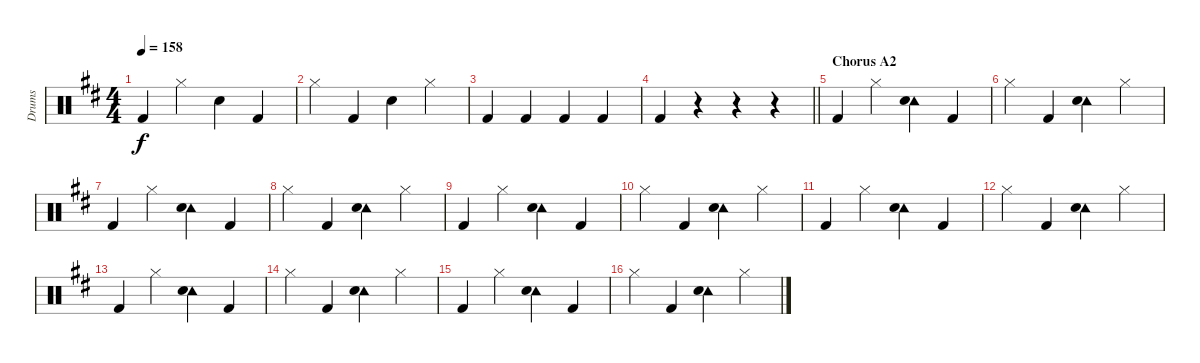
\track ("Drums" "Drums") {instrument percussion}
\staff {score}
\articulation defaults
\ts (4 4)
\tempo 158
\clef neutral
\ks d "Kick (hit) 2".4{dy f} "Hi-Hat (closed)".4 "Snare (hit) 2".4 "Kick (hit) 2".4
|
"Hi-Hat (closed)".4 "Kick (hit) 2".4 "Snare (hit) 2".4 "Hi-Hat (closed)".4 |
"Kick (hit) 2".4 "Kick (hit) 2".4 "Kick (hit) 2".4 "Kick (hit) 2".4 |
\barLineRight lightlight "Kick (hit) 2".4
r.4 r.4 r.4 |
\section ("" "Chorus A2")
"Kick (hit) 2".4 "Hi-Hat (closed)".4 ("Tambourine (hit)" "Snare (hit) 2").4 "Kick (hit) 2".4 |
"Hi-Hat (closed)".4 "Kick (hit) 2".4 ("Tambourine (hit)" "Snare (hit) 2").4 "Hi-Hat (closed)".4 |
"Kick (hit) 2".4 "Hi-Hat (closed)".4 ("Tambourine (hit)" "Snare (hit) 2").4 "Kick (hit) 2".4 |
"Hi-Hat (closed)".4 "Kick (hit) 2".4 ("Tambourine (hit)" "Snare (hit) 2").4 "Hi-Hat (closed)".4 |
"Kick (hit) 2".4 "Hi-Hat (closed)".4 ("Tambourine (hit)" "Snare (hit) 2").4 "Kick (hit) 2".4 |
"Hi-Hat (closed)".4 "Kick (hit) 2".4 ("Tambourine (hit)" "Snare (hit) 2").4 "Hi-Hat (closed)".4 |
"Kick (hit) 2".4 "Hi-Hat (closed)".4 ("Tambourine (hit)" "Snare (hit) 2").4 "Kick (hit) 2".4 |
"Hi-Hat (closed)".4 "Kick (hit) 2".4 ("Tambourine (hit)" "Snare (hit) 2").4 "Hi-Hat (closed)".4 |
"Kick (hit) 2".4 "Hi-Hat (closed)".4 ("Tambourine (hit)" "Snare (hit) 2").4 "Kick (hit) 2".4 |
"Hi-Hat (closed)".4 "Kick (hit) 2".4 ("Tambourine (hit)" "Snare (hit) 2").4 "Hi-Hat (closed)".4 |
"Kick (hit) 2".4 "Hi-Hat (closed)".4 ("Tambourine (hit)" "Snare (hit) 2").4 "Kick (hit) 2".4 |
"Hi-Hat (closed)".4 "Kick (hit) 2".4 ("Tambourine (hit)" "Snare (hit) 2").4 "Hi-Hat (closed)".4
